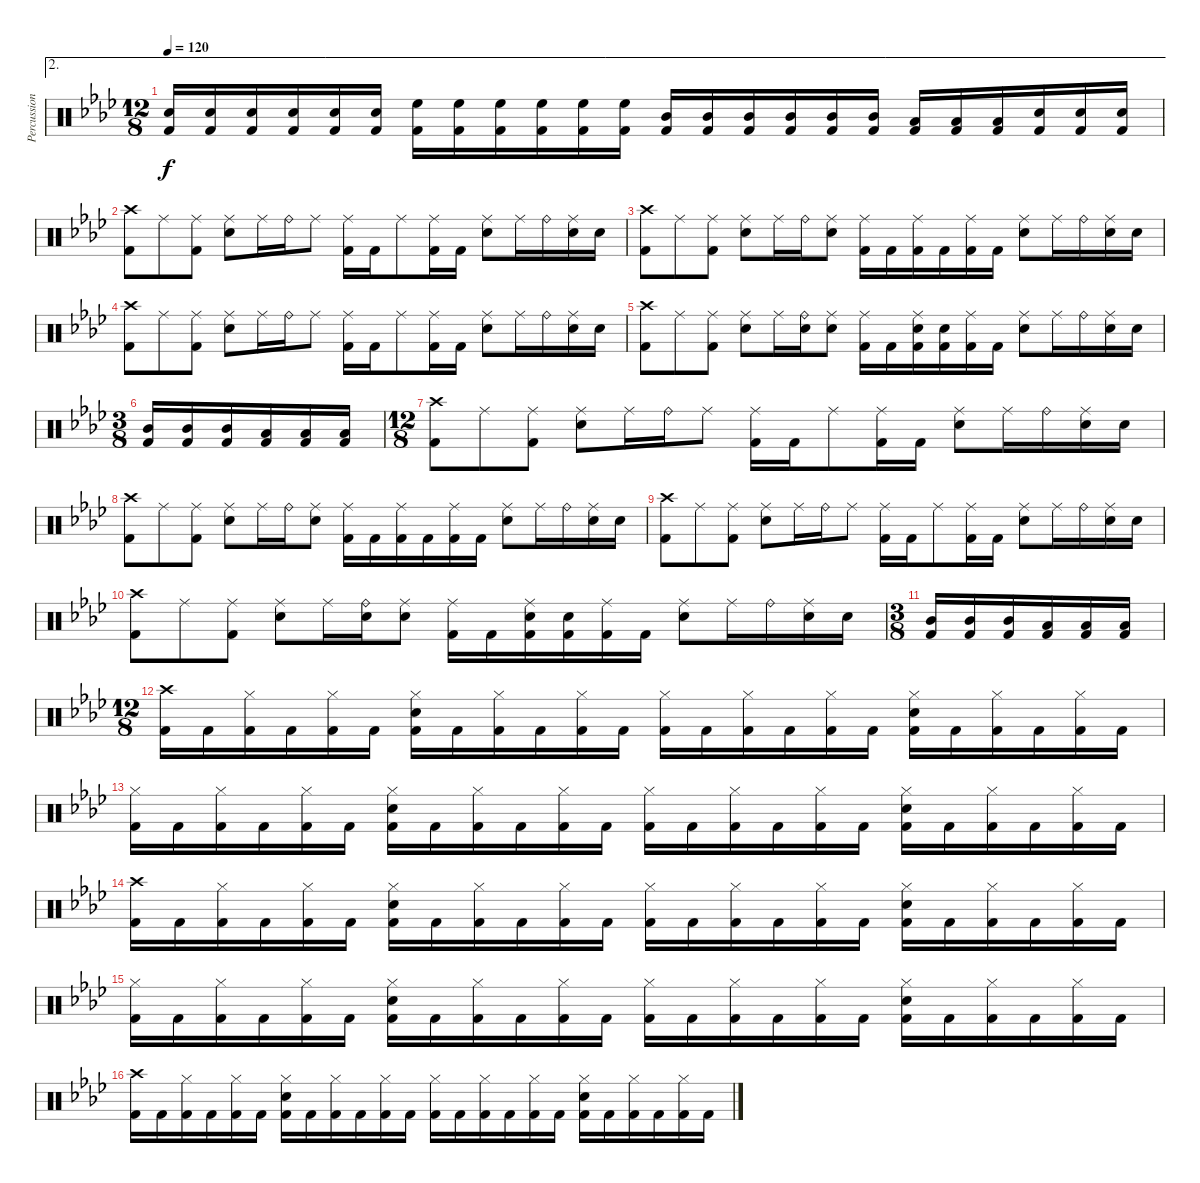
\track ("Percussions" "Percussion") {instrument percussion}
\staff {score}
\articulation defaults
\ae 2
\ts (12 8)
\tempo 120
\clef neutral
\ks fminor
("Snare (hit) 2" "Kick (hit) 2").16{dy f} ("Snare (hit) 2" "Kick (hit) 2").16 ("Snare (hit) 2" "Kick (hit) 2").16 ("Snare (hit) 2" "Kick (hit) 2").16 ("Snare (hit) 2" "Kick (hit) 2").16 ("Snare (hit) 2" "Kick (hit) 2").16 ("High Floor Tom (hit)" "Kick (hit) 2").16 ("High Floor Tom (hit)" "Kick (hit) 2").16 ("High Floor Tom (hit)" "Kick (hit) 2").16 ("High Floor Tom (hit)" "Kick (hit) 2").16 ("High Floor Tom (hit)" "Kick (hit) 2").16 ("High Floor Tom (hit)" "Kick (hit) 2").16 ("Mid Tom (hit)" "Kick (hit) 2").16 ("Mid Tom (hit)" "Kick (hit) 2").16 ("Mid Tom (hit)" "Kick (hit) 2").16 ("Mid Tom (hit)" "Kick (hit) 2").16 ("Mid Tom (hit)" "Kick (hit) 2").16 ("Mid Tom (hit)" "Kick (hit) 2").16 ("Low Tom (hit)" "Kick (hit) 2").16 ("Low Tom (hit)" "Kick (hit) 2").16 ("Low Tom (hit)" "Kick (hit) 2").16 ("Snare (hit) 2" "Kick (hit) 2").16 ("Snare (hit) 2" "Kick (hit) 2").16 ("Snare (hit) 2" "Kick (hit) 2").16 |
("Crash high (hit)" "Kick (hit) 2").8 "Ride (middle)".8 ("Ride (middle)" "Kick (hit) 2").8 ("Ride (middle)" "Snare (hit) 2").8 "Ride (middle)".16 "Ride (bell)".16 "Ride (middle)".8 ("Ride (middle)" "Kick (hit) 2").16 "Kick (hit) 2".16 "Ride (middle)".8 ("Ride (middle)" "Kick (hit) 2").16 "Kick (hit) 2".16 ("Ride (middle)" "Snare (hit) 2").8 "Ride (middle)".16 "Ride (bell)".16 ("Ride (middle)" "Snare (hit) 2").16 "Snare (hit) 2".16 |
("Crash high (hit)" "Kick (hit) 2").8 "Ride (middle)".8 ("Ride (middle)" "Kick (hit) 2").8 ("Ride (middle)" "Snare (hit) 2").8 "Ride (middle)".16 "Ride (bell)".16 ("Ride (middle)" "Snare (hit) 2").8 ("Ride (middle)" "Kick (hit) 2").16 "Kick (hit) 2".16 ("Ride (middle)" "Kick (hit) 2").16 "Kick (hit) 2".16 ("Ride (middle)" "Kick (hit) 2").16 "Kick (hit) 2".16 ("Ride (middle)" "Snare (hit) 2").8 "Ride (middle)".16 "Ride (bell)".16 ("Ride (middle)" "Snare (hit) 2").16 "Snare (hit) 2".16 |
("Crash high (hit)" "Kick (hit) 2").8 "Ride (middle)".8 ("Ride (middle)" "Kick (hit) 2").8 ("Ride (middle)" "Snare (hit) 2").8 "Ride (middle)".16 "Ride (bell)".16 "Ride (middle)".8 ("Ride (middle)" "Kick (hit) 2").16 "Kick (hit) 2".16 "Ride (middle)".8 ("Ride (middle)" "Kick (hit) 2").16 "Kick (hit) 2".16 ("Ride (middle)" "Snare (hit) 2").8 "Ride (middle)".16 "Ride (bell)".16 ("Ride (middle)" "Snare (hit) 2").16 "Snare (hit) 2".16 |
("Crash high (hit)" "Kick (hit) 2").8 "Ride (middle)".8 ("Ride (middle)" "Kick (hit) 2").8 ("Ride (middle)" "Snare (hit) 2").8 "Ride (middle)".16 ("Ride (bell)" "Snare (hit) 2").16 ("Ride (middle)" "Snare (hit) 2").8 ("Ride (middle)" "Kick (hit) 2").16 "Kick (hit) 2".16 ("Ride (middle)" "Snare (hit) 2" "Kick (hit) 2").16 ("Snare (hit) 2" "Kick (hit) 2").16 ("Ride (middle)" "Kick (hit) 2").16 "Kick (hit) 2".16 ("Ride (middle)" "Snare (hit) 2").8 "Ride (middle)".16 "Ride (bell)".16 ("Ride (middle)" "Snare (hit) 2").16 "Snare (hit) 2".16 |
\ts (3 8)
("Mid Tom (hit)" "Kick (hit) 2").16 ("Mid Tom (hit)" "Kick (hit) 2").16 ("Mid Tom (hit)" "Kick (hit) 2").16 ("Low Tom (hit)" "Kick (hit) 2").16 ("Low Tom (hit)" "Kick (hit) 2").16 ("Low Tom (hit)" "Kick (hit) 2").16 |
\ts (12 8)
("Crash high (hit)" "Kick (hit) 2").8 "Ride (middle)".8 ("Ride (middle)" "Kick (hit) 2").8 ("Ride (middle)" "Snare (hit) 2").8 "Ride (middle)".16 "Ride (bell)".16 "Ride (middle)".8 ("Ride (middle)" "Kick (hit) 2").16 "Kick (hit) 2".16 "Ride (middle)".8 ("Ride (middle)" "Kick (hit) 2").16 "Kick (hit) 2".16 ("Ride (middle)" "Snare (hit) 2").8 "Ride (middle)".16 "Ride (bell)".16 ("Ride (middle)" "Snare (hit) 2").16 "Snare (hit) 2".16 |
("Crash high (hit)" "Kick (hit) 2").8 "Ride (middle)".8 ("Ride (middle)" "Kick (hit) 2").8 ("Ride (middle)" "Snare (hit) 2").8 "Ride (middle)".16 "Ride (bell)".16 ("Ride (middle)" "Snare (hit) 2").8 ("Ride (middle)" "Kick (hit) 2").16 "Kick (hit) 2".16 ("Ride (middle)" "Kick (hit) 2").16 "Kick (hit) 2".16 ("Ride (middle)" "Kick (hit) 2").16 "Kick (hit) 2".16 ("Ride (middle)" "Snare (hit) 2").8 "Ride (middle)".16 "Ride (bell)".16 ("Ride (middle)" "Snare (hit) 2").16 "Snare (hit) 2".16 |
("Crash high (hit)" "Kick (hit) 2").8 "Ride (middle)".8 ("Ride (middle)" "Kick (hit) 2").8 ("Ride (middle)" "Snare (hit) 2").8 "Ride (middle)".16 "Ride (bell)".16 "Ride (middle)".8 ("Ride (middle)" "Kick (hit) 2").16 "Kick (hit) 2".16 "Ride (middle)".8 ("Ride (middle)" "Kick (hit) 2").16 "Kick (hit) 2".16 ("Ride (middle)" "Snare (hit) 2").8 "Ride (middle)".16 "Ride (bell)".16 ("Ride (middle)" "Snare (hit) 2").16 "Snare (hit) 2".16 |
("Crash high (hit)" "Kick (hit) 2").8 "Ride (middle)".8 ("Ride (middle)" "Kick (hit) 2").8 ("Ride (middle)" "Snare (hit) 2").8 "Ride (middle)".16 ("Ride (bell)" "Snare (hit) 2").16 ("Ride (middle)" "Snare (hit) 2").8 ("Ride (middle)" "Kick (hit) 2").16 "Kick (hit) 2".16 ("Ride (middle)" "Snare (hit) 2" "Kick (hit) 2").16 ("Snare (hit) 2" "Kick (hit) 2").16 ("Ride (middle)" "Kick (hit) 2").16 "Kick (hit) 2".16 ("Ride (middle)" "Snare (hit) 2").8 "Ride (middle)".16 "Ride (bell)".16 ("Ride (middle)" "Snare (hit) 2").16 "Snare (hit) 2".16 |
\ts (3 8)
("Mid Tom (hit)" "Kick (hit) 2").16 ("Mid Tom (hit)" "Kick (hit) 2").16 ("Mid Tom (hit)" "Kick (hit) 2").16 ("Low Tom (hit)" "Kick (hit) 2").16 ("Low Tom (hit)" "Kick (hit) 2").16 ("Low Tom (hit)" "Kick (hit) 2").16 |
\ts (12 8)
("Crash high (hit)" "Kick (hit) 2").16 "Kick (hit) 2".16 ("Hi-Hat (closed)" "Kick (hit) 2").16 "Kick (hit) 2".16 ("Hi-Hat (closed)" "Kick (hit) 2").16 "Kick (hit) 2".16 ("Hi-Hat (closed)" "Snare (hit) 2" "Kick (hit) 2").16 "Kick (hit) 2".16 ("Hi-Hat (closed)" "Kick (hit) 2").16 "Kick (hit) 2".16 ("Hi-Hat (closed)" "Kick (hit) 2").16 "Kick (hit) 2".16 ("Hi-Hat (closed)" "Kick (hit) 2").16 "Kick (hit) 2".16 ("Hi-Hat (closed)" "Kick (hit) 2").16 "Kick (hit) 2".16 ("Hi-Hat (closed)" "Kick (hit) 2").16 "Kick (hit) 2".16 ("Hi-Hat (closed)" "Snare (hit) 2" "Kick (hit) 2").16 "Kick (hit) 2".16 ("Hi-Hat (closed)" "Kick (hit) 2").16 "Kick (hit) 2".16 ("Hi-Hat (closed)" "Kick (hit) 2").16 "Kick (hit) 2".16 |
("Hi-Hat (closed)" "Kick (hit) 2").16 "Kick (hit) 2".16 ("Hi-Hat (closed)" "Kick (hit) 2").16 "Kick (hit) 2".16 ("Hi-Hat (closed)" "Kick (hit) 2").16 "Kick (hit) 2".16 ("Hi-Hat (closed)" "Snare (hit) 2" "Kick (hit) 2").16 "Kick (hit) 2".16 ("Hi-Hat (closed)" "Kick (hit) 2").16 "Kick (hit) 2".16 ("Hi-Hat (closed)" "Kick (hit) 2").16 "Kick (hit) 2".16 ("Hi-Hat (closed)" "Kick (hit) 2").16 "Kick (hit) 2".16 ("Hi-Hat (closed)" "Kick (hit) 2").16 "Kick (hit) 2".16 ("Hi-Hat (closed)" "Kick (hit) 2").16 "Kick (hit) 2".16 ("Hi-Hat (closed)" "Snare (hit) 2" "Kick (hit) 2").16 "Kick (hit) 2".16 ("Hi-Hat (closed)" "Kick (hit) 2").16 "Kick (hit) 2".16 ("Hi-Hat (closed)" "Kick (hit) 2").16 "Kick (hit) 2".16 |
("Crash high (hit)" "Kick (hit) 2").16 "Kick (hit) 2".16 ("Hi-Hat (closed)" "Kick (hit) 2").16 "Kick (hit) 2".16 ("Hi-Hat (closed)" "Kick (hit) 2").16 "Kick (hit) 2".16 ("Hi-Hat (closed)" "Snare (hit) 2" "Kick (hit) 2").16 "Kick (hit) 2".16 ("Hi-Hat (closed)" "Kick (hit) 2").16 "Kick (hit) 2".16 ("Hi-Hat (closed)" "Kick (hit) 2").16 "Kick (hit) 2".16 ("Hi-Hat (closed)" "Kick (hit) 2").16 "Kick (hit) 2".16 ("Hi-Hat (closed)" "Kick (hit) 2").16 "Kick (hit) 2".16 ("Hi-Hat (closed)" "Kick (hit) 2").16 "Kick (hit) 2".16 ("Hi-Hat (closed)" "Snare (hit) 2" "Kick (hit) 2").16 "Kick (hit) 2".16 ("Hi-Hat (closed)" "Kick (hit) 2").16 "Kick (hit) 2".16 ("Hi-Hat (closed)" "Kick (hit) 2").16 "Kick (hit) 2".16 |
("Hi-Hat (closed)" "Kick (hit) 2").16 "Kick (hit) 2".16 ("Hi-Hat (closed)" "Kick (hit) 2").16 "Kick (hit) 2".16 ("Hi-Hat (closed)" "Kick (hit) 2").16 "Kick (hit) 2".16 ("Hi-Hat (closed)" "Snare (hit) 2" "Kick (hit) 2").16 "Kick (hit) 2".16 ("Hi-Hat (closed)" "Kick (hit) 2").16 "Kick (hit) 2".16 ("Hi-Hat (closed)" "Kick (hit) 2").16 "Kick (hit) 2".16 ("Hi-Hat (closed)" "Kick (hit) 2").16 "Kick (hit) 2".16 ("Hi-Hat (closed)" "Kick (hit) 2").16 "Kick (hit) 2".16 ("Hi-Hat (closed)" "Kick (hit) 2").16 "Kick (hit) 2".16 ("Hi-Hat (closed)" "Snare (hit) 2" "Kick (hit) 2").16 "Kick (hit) 2".16 ("Hi-Hat (closed)" "Kick (hit) 2").16 "Kick (hit) 2".16 ("Hi-Hat (closed)" "Kick (hit) 2").16 "Kick (hit) 2".16 |
("Crash high (hit)" "Kick (hit) 2").16 "Kick (hit) 2".16 ("Hi-Hat (closed)" "Kick (hit) 2").16 "Kick (hit) 2".16 ("Hi-Hat (closed)" "Kick (hit) 2").16 "Kick (hit) 2".16 ("Hi-Hat (closed)" "Snare (hit) 2" "Kick (hit) 2").16 "Kick (hit) 2".16 ("Hi-Hat (closed)" "Kick (hit) 2").16 "Kick (hit) 2".16 ("Hi-Hat (closed)" "Kick (hit) 2").16 "Kick (hit) 2".16 ("Hi-Hat (closed)" "Kick (hit) 2").16 "Kick (hit) 2".16 ("Hi-Hat (closed)" "Kick (hit) 2").16 "Kick (hit) 2".16 ("Hi-Hat (closed)" "Kick (hit) 2").16 "Kick (hit) 2".16 ("Hi-Hat (closed)" "Snare (hit) 2" "Kick (hit) 2").16 "Kick (hit) 2".16 ("Hi-Hat (closed)" "Kick (hit) 2").16 "Kick (hit) 2".16 ("Hi-Hat (closed)" "Kick (hit) 2").16 "Kick (hit) 2".16
